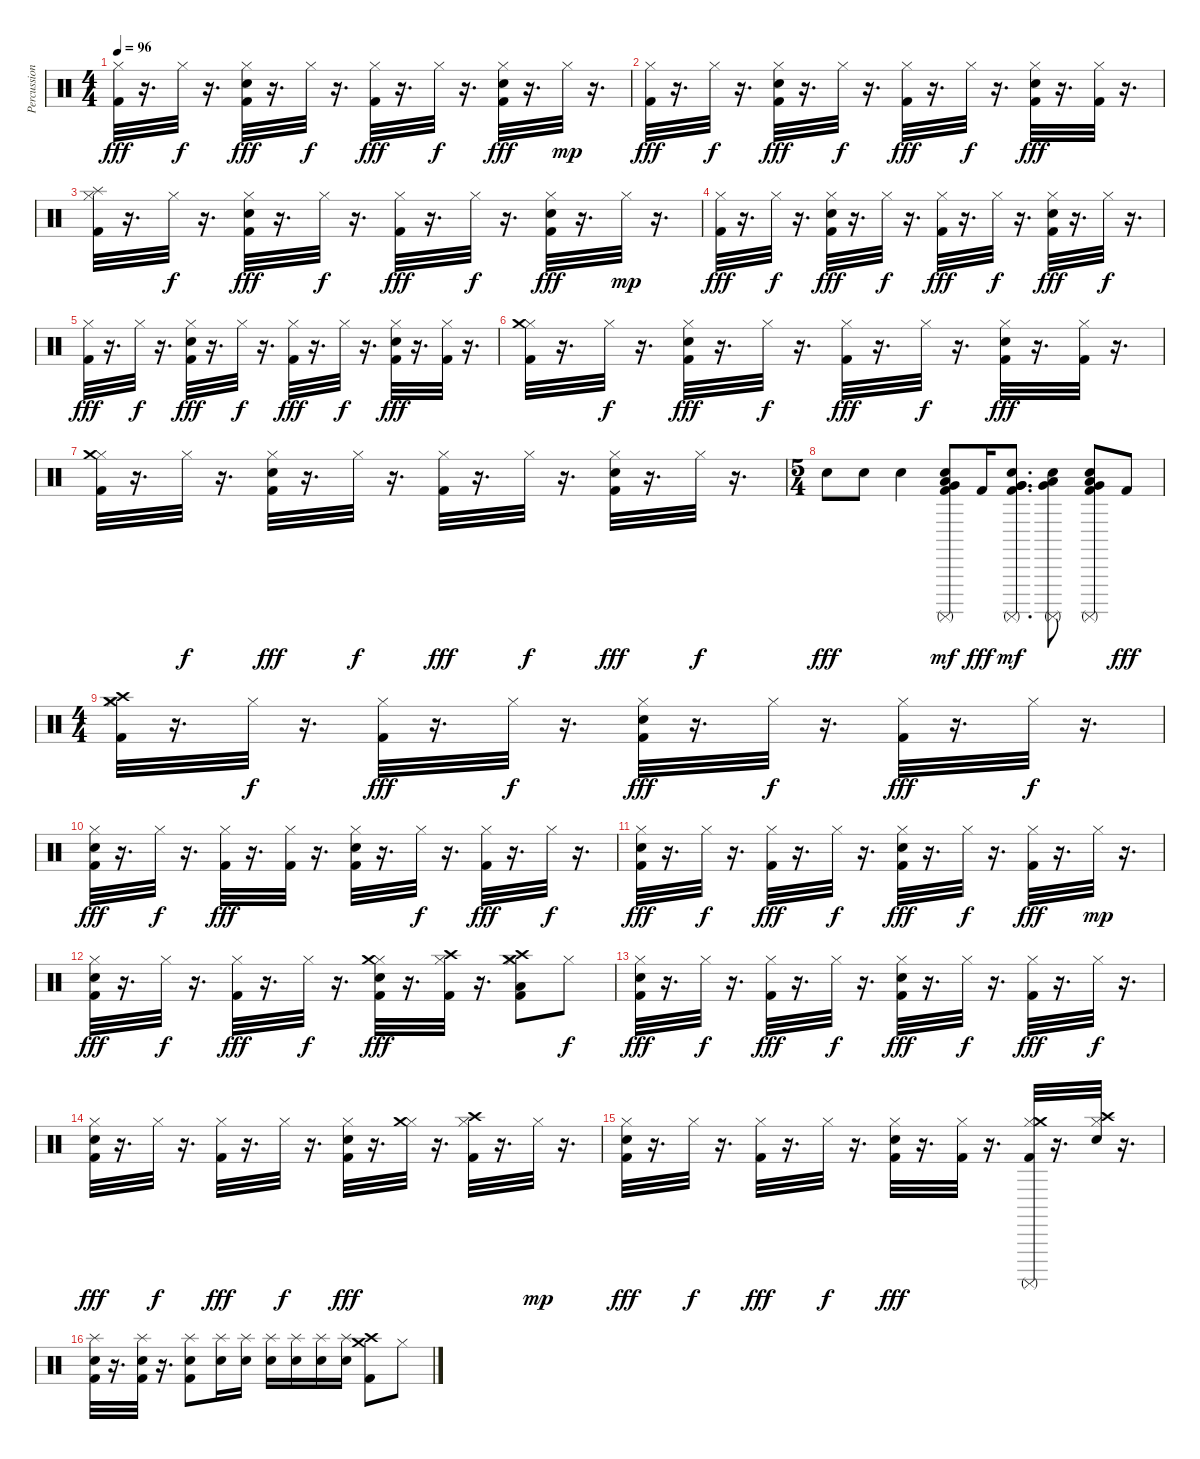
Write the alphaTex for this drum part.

\track ("Percussion" "Percussion") {instrument percussion}
\staff {score}
\articulation defaults
\ts (4 4)
\tempo 96
\clef neutral
\ks c
("Hi-Hat (closed)" "Kick (hit) 2").32{dy fff} r.16{d} "Hi-Hat (closed)".32{dy f} r.16{d} ("Hi-Hat (closed)" "Snare (hit) 2" "Kick (hit) 2").32{dy fff} r.16{d} "Hi-Hat (closed)".32{dy f} r.16{d} ("Hi-Hat (closed)" "Kick (hit) 2").32{dy fff} r.16{d} "Hi-Hat (closed)".32{dy f} r.16{d} ("Hi-Hat (closed)" "Snare (hit) 2" "Kick (hit) 2").32{dy fff} r.16{d} "Hi-Hat (closed)".32{dy mp} r.16{d} |
("Hi-Hat (closed)" "Kick (hit) 2").32{dy fff} r.16{d} "Hi-Hat (closed)".32{dy f} r.16{d} ("Hi-Hat (closed)" "Snare (hit) 2" "Kick (hit) 2").32{dy fff} r.16{d} "Hi-Hat (closed)".32{dy f} r.16{d} ("Hi-Hat (closed)" "Kick (hit) 2").32{dy fff} r.16{d} "Hi-Hat (closed)".32{dy f} r.16{d} ("Hi-Hat (closed)" "Snare (hit) 2" "Kick (hit) 2").32{dy fff} r.16{d} ("Hi-Hat (closed)" "Kick (hit) 2").32 r.16{d} |
("Hi-Hat (closed)" "Kick (hit) 2" "Splash (hit)").32 r.16{d} "Hi-Hat (closed)".32{dy f} r.16{d} ("Hi-Hat (closed)" "Snare (hit) 2" "Kick (hit) 2").32{dy fff} r.16{d} "Hi-Hat (closed)".32{dy f} r.16{d} ("Hi-Hat (closed)" "Kick (hit) 2").32{dy fff} r.16{d} "Hi-Hat (closed)".32{dy f} r.16{d} ("Hi-Hat (closed)" "Snare (hit) 2" "Kick (hit) 2").32{dy fff} r.16{d} "Hi-Hat (closed)".32{dy mp} r.16{d} |
("Hi-Hat (closed)" "Kick (hit) 2").32{dy fff} r.16{d} "Hi-Hat (closed)".32{dy f} r.16{d} ("Hi-Hat (closed)" "Snare (hit) 2" "Kick (hit) 2").32{dy fff} r.16{d} "Hi-Hat (closed)".32{dy f} r.16{d} ("Hi-Hat (closed)" "Kick (hit) 2").32{dy fff} r.16{d} "Hi-Hat (closed)".32{dy f} r.16{d} ("Hi-Hat (closed)" "Snare (hit) 2" "Kick (hit) 2").32{dy fff} r.16{d} "Hi-Hat (closed)".32{dy f} r.16{d} |
("Hi-Hat (closed)" "Kick (hit) 2").32{dy fff} r.16{d} "Hi-Hat (closed)".32{dy f} r.16{d} ("Hi-Hat (closed)" "Snare (hit) 2" "Kick (hit) 2").32{dy fff} r.16{d} "Hi-Hat (closed)".32{dy f} r.16{d} ("Hi-Hat (closed)" "Kick (hit) 2").32{dy fff} r.16{d} "Hi-Hat (closed)".32{dy f} r.16{d} ("Hi-Hat (closed)" "Snare (hit) 2" "Kick (hit) 2").32{dy fff} r.16{d} ("Hi-Hat (closed)" "Kick (hit) 2").32 r.16{d} |
("Hi-Hat (closed)" "Kick (hit) 2" "Crash medium (hit)").32 r.16{d} "Hi-Hat (closed)".32{dy f} r.16{d} ("Hi-Hat (closed)" "Snare (hit) 2" "Kick (hit) 2").32{dy fff} r.16{d} "Hi-Hat (closed)".32{dy f} r.16{d} ("Hi-Hat (closed)" "Kick (hit) 2").32{dy fff} r.16{d} "Hi-Hat (closed)".32{dy f} r.16{d} ("Hi-Hat (closed)" "Snare (hit) 2" "Kick (hit) 2").32{dy fff} r.16{d} ("Hi-Hat (closed)" "Kick (hit) 2").32 r.16{d} |
("Hi-Hat (closed)" "Kick (hit) 2" "Crash medium (hit)").32 r.16{d} "Hi-Hat (closed)".32{dy f} r.16{d} ("Hi-Hat (closed)" "Snare (hit) 2" "Kick (hit) 2").32{dy fff} r.16{d} "Hi-Hat (closed)".32{dy f} r.16{d} ("Hi-Hat (closed)" "Kick (hit) 2").32{dy fff} r.16{d} "Hi-Hat (closed)".32{dy f} r.16{d} ("Hi-Hat (closed)" "Snare (hit) 2" "Kick (hit) 2").32{dy fff} r.16{d} "Hi-Hat (closed)".32{dy f} r.16{d} |
\ts (5 4)
"Snare (hit) 2".8{dy fff} "Snare (hit) 2".8 "Snare (hit) 2".4 ("Kick (hit) 2" "Low Tom (hit)" "Very Low Tom (hit)" "Surdo (mute)" "Snare (hit) 2").8{dy mf} "Kick (hit) 2".16{dy fff} ("Kick (hit) 2" "Very Low Tom (hit)" "Very Low Tom (hit)" "Surdo (mute)" "Snare (hit) 2").8{d dy mf} ("Low Floor Tom (hit)" "Very Low Tom (hit)" "Surdo (mute)" "Snare (hit) 2").8 ("Kick (hit) 2" "Low Floor Tom (hit)" "Very Low Tom (hit)" "Surdo (mute)" "Snare (hit) 2").8 "Kick (hit) 2".8{dy fff} |
\ts (4 4)
("Crash high (hit)" "Hi-Hat (closed)" "Kick (hit) 2" "Crash medium (hit)").32 r.16{d} "Hi-Hat (closed)".32{dy f} r.16{d} ("Hi-Hat (closed)" "Kick (hit) 2").32{dy fff} r.16{d} "Hi-Hat (closed)".32{dy f} r.16{d} ("Hi-Hat (closed)" "Kick (hit) 2" "Snare (hit) 2").32{dy fff} r.16{d} "Hi-Hat (closed)".32{dy f} r.16{d} ("Hi-Hat (closed)" "Kick (hit) 2").32{dy fff} r.16{d} "Hi-Hat (closed)".32{dy f} r.16{d} |
("Hi-Hat (closed)" "Kick (hit) 2" "Snare (hit) 2").32{dy fff} r.16{d} "Hi-Hat (closed)".32{dy f} r.16{d} ("Hi-Hat (closed)" "Kick (hit) 2").32{dy fff} r.16{d} ("Hi-Hat (closed)" "Kick (hit) 2").32 r.16{d} ("Hi-Hat (closed)" "Kick (hit) 2" "Snare (hit) 2").32 r.16{d} "Hi-Hat (closed)".32{dy f} r.16{d} ("Hi-Hat (closed)" "Kick (hit) 2").32{dy fff} r.16{d} "Hi-Hat (closed)".32{dy f} r.16{d} |
("Hi-Hat (closed)" "Kick (hit) 2" "Snare (hit) 2").32{dy fff} r.16{d} "Hi-Hat (closed)".32{dy f} r.16{d} ("Hi-Hat (closed)" "Kick (hit) 2").32{dy fff} r.16{d} "Hi-Hat (closed)".32{dy f} r.16{d} ("Hi-Hat (closed)" "Kick (hit) 2" "Snare (hit) 2").32{dy fff} r.16{d} "Hi-Hat (closed)".32{dy f} r.16{d} ("Hi-Hat (closed)" "Kick (hit) 2").32{dy fff} r.16{d} "Hi-Hat (closed)".32{dy mp} r.16{d} |
("Hi-Hat (closed)" "Kick (hit) 2" "Snare (hit) 2").32{dy fff} r.16{d} "Hi-Hat (closed)".32{dy f} r.16{d} ("Hi-Hat (closed)" "Kick (hit) 2").32{dy fff} r.16{d} "Hi-Hat (closed)".32{dy f} r.16{d} ("Hi-Hat (closed)" "Kick (hit) 2" "Snare (hit) 2" "Crash medium (hit)").32{dy fff} r.16{d} ("Hi-Hat (closed)" "Kick (hit) 2" "Crash high (hit)").32 r.16{d} ("Hi-Hat (closed)" "Low Floor Tom (hit)" "Kick (hit) 2" "Crash high (hit)" "Crash medium (hit)").8 "Hi-Hat (closed)".8{dy f} |
("Hi-Hat (closed)" "Kick (hit) 2" "Snare (hit) 2").32{dy fff} r.16{d} "Hi-Hat (closed)".32{dy f} r.16{d} ("Hi-Hat (closed)" "Kick (hit) 2").32{dy fff} r.16{d} "Hi-Hat (closed)".32{dy f} r.16{d} ("Hi-Hat (closed)" "Kick (hit) 2" "Snare (hit) 2").32{dy fff} r.16{d} "Hi-Hat (closed)".32{dy f} r.16{d} ("Hi-Hat (closed)" "Kick (hit) 2").32{dy fff} r.16{d} "Hi-Hat (closed)".32{dy f} r.16{d} |
("Hi-Hat (closed)" "Kick (hit) 2" "Snare (hit) 2").32{dy fff} r.16{d} "Hi-Hat (closed)".32{dy f} r.16{d} ("Hi-Hat (closed)" "Kick (hit) 2").32{dy fff} r.16{d} "Hi-Hat (closed)".32{dy f} r.16{d} ("Hi-Hat (closed)" "Kick (hit) 2" "Snare (hit) 2").32{dy fff} r.16{d} ("Hi-Hat (closed)" "Crash medium (hit)").32 r.16{d} ("Hi-Hat (closed)" "Kick (hit) 2" "Crash high (hit)").32 r.16{d} "Hi-Hat (closed)".32{dy mp} r.16{d} |
("Hi-Hat (closed)" "Kick (hit) 2" "Snare (hit) 2").32{dy fff} r.16{d} "Hi-Hat (closed)".32{dy f} r.16{d} ("Hi-Hat (closed)" "Kick (hit) 2").32{dy fff} r.16{d} "Hi-Hat (closed)".32{dy f} r.16{d} ("Hi-Hat (closed)" "Kick (hit) 2" "Snare (hit) 2").32{dy fff} r.16{d} ("Hi-Hat (closed)" "Kick (hit) 2").32 r.16{d} ("Hi-Hat (closed)" "Kick (hit) 2" "Surdo (mute)" "Crash medium (hit)").32 r.16{d} ("Hi-Hat (closed)" "Snare (hit) 2" "Crash high (hit)").32 r.16{d} |
("Splash (hit)" "Kick (hit) 2" "Snare (hit) 2").32 r.16{d} ("Splash (hit)" "Kick (hit) 2" "Snare (hit) 2").32 r.16{d} ("Splash (hit)" "Snare (hit) 2" "Kick (hit) 2").8 ("Splash (hit)" "Snare (hit) 2").16 ("Splash (hit)" "Snare (hit) 2").16 ("Splash (hit)" "Snare (hit) 2").16 ("Splash (hit)" "Snare (hit) 2").16 ("Splash (hit)" "Snare (hit) 2").16 ("Splash (hit)" "Snare (hit) 2").16 ("Kick (hit) 2" "Crash high (hit)" "Crash medium (hit)").8 "Hi-Hat (closed)".8
